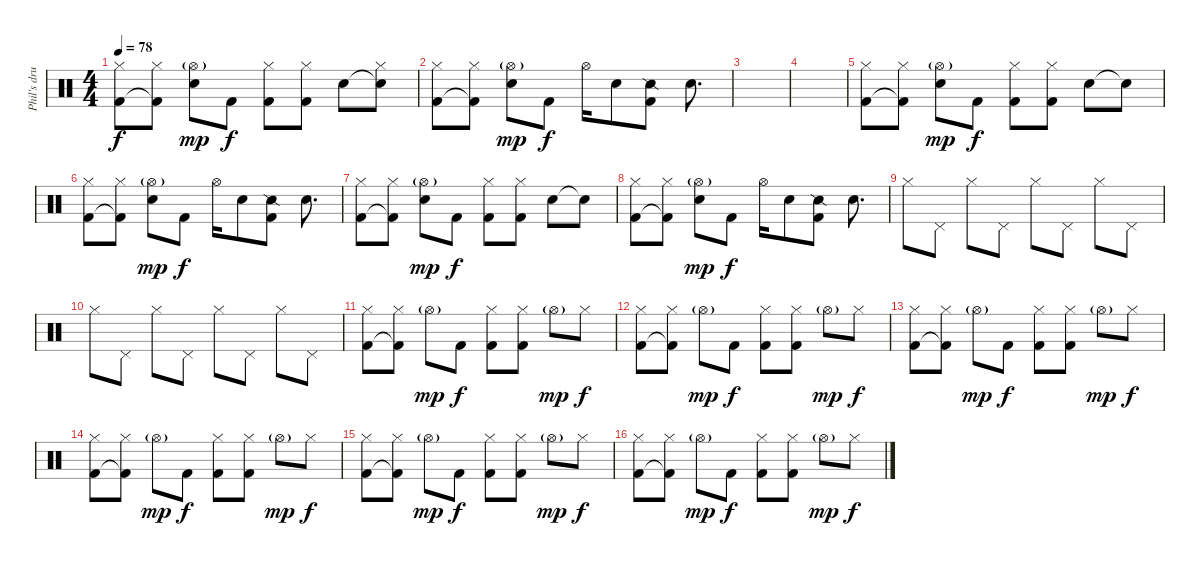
\track ("Phil's drums" "Phil's dru") {instrument percussion}
\staff {score}
\articulation defaults
\ts (4 4)
\tempo 78
\clef neutral
\ks c
("Kick (hit) 2" "Hi-Hat (closed)").8{dy f} ("Kick (hit) 2"{t} "Hi-Hat (closed)").8 ("Snare (hit) 2" "Hi-Hat (open)"{g}).8{dy mp} "Kick (hit) 2".8{dy f} ("Kick (hit) 2" "Hi-Hat (closed)").8 ("Kick (hit) 2" "Hi-Hat (closed)").8 "Snare (hit) 2".8 ("Snare (hit) 2"{t} "Hi-Hat (closed)").8 |
("Kick (hit) 2" "Hi-Hat (closed)").8 ("Kick (hit) 2"{t} "Hi-Hat (closed)").8 ("Snare (hit) 2" "Hi-Hat (open)"{g}).8{dy mp} "Kick (hit) 2".8{dy f} "Hi-Hat (open)".16 "Snare (hit) 2".8 ("Snare (side stick) 2" "Kick (hit) 2").8 "Snare (hit) 2".8{d} |
|
|
("Kick (hit) 2" "Hi-Hat (closed)").8 ("Kick (hit) 2"{t} "Hi-Hat (closed)").8 ("Snare (hit) 2" "Hi-Hat (open)"{g}).8{dy mp} "Kick (hit) 2".8{dy f} ("Kick (hit) 2" "Hi-Hat (closed)").8 ("Kick (hit) 2" "Hi-Hat (closed)").8 "Snare (hit) 2".8 "Snare (hit) 2"{t}.8 |
("Kick (hit) 2" "Hi-Hat (closed)").8 ("Kick (hit) 2"{t} "Hi-Hat (closed)").8 ("Snare (hit) 2" "Hi-Hat (open)"{g}).8{dy mp} "Kick (hit) 2".8{dy f} "Hi-Hat (open)".16 "Snare (hit) 2".8 ("Snare (side stick) 2" "Kick (hit) 2").8 "Snare (hit) 2".8{d} |
("Kick (hit) 2" "Hi-Hat (closed)").8 ("Kick (hit) 2"{t} "Hi-Hat (closed)").8 ("Snare (hit) 2" "Hi-Hat (open)"{g}).8{dy mp} "Kick (hit) 2".8{dy f} ("Kick (hit) 2" "Hi-Hat (closed)").8 ("Kick (hit) 2" "Hi-Hat (closed)").8 "Snare (hit) 2".8 "Snare (hit) 2"{t}.8 |
("Kick (hit) 2" "Hi-Hat (closed)").8 ("Kick (hit) 2"{t} "Hi-Hat (closed)").8 ("Snare (hit) 2" "Hi-Hat (open)"{g}).8{dy mp} "Kick (hit) 2".8{dy f} "Hi-Hat (open)".16 "Snare (hit) 2".8 ("Snare (side stick) 2" "Kick (hit) 2").8 "Snare (hit) 2".8{d} |
"Hi-Hat (closed)".8 "Pedal Hi-Hat (hit)".8 "Hi-Hat (closed)".8 "Pedal Hi-Hat (hit)".8 "Hi-Hat (closed)".8 "Pedal Hi-Hat (hit)".8 "Hi-Hat (closed)".8 "Pedal Hi-Hat (hit)".8 |
"Hi-Hat (closed)".8 "Pedal Hi-Hat (hit)".8 "Hi-Hat (closed)".8 "Pedal Hi-Hat (hit)".8 "Hi-Hat (closed)".8 "Pedal Hi-Hat (hit)".8 "Hi-Hat (closed)".8 "Pedal Hi-Hat (hit)".8 |
("Kick (hit) 2" "Hi-Hat (closed)").8 ("Kick (hit) 2"{t} "Hi-Hat (closed)").8 "Hi-Hat (open)"{g}.8{dy mp} "Kick (hit) 2".8{dy f} ("Kick (hit) 2" "Hi-Hat (closed)").8 ("Kick (hit) 2" "Hi-Hat (closed)").8 "Hi-Hat (open)"{g}.8{dy mp} "Hi-Hat (closed)".8{dy f} |
("Kick (hit) 2" "Hi-Hat (closed)").8 ("Kick (hit) 2"{t} "Hi-Hat (closed)").8 "Hi-Hat (open)"{g}.8{dy mp} "Kick (hit) 2".8{dy f} ("Kick (hit) 2" "Hi-Hat (closed)").8 ("Kick (hit) 2" "Hi-Hat (closed)").8 "Hi-Hat (open)"{g}.8{dy mp} "Hi-Hat (closed)".8{dy f} |
("Kick (hit) 2" "Hi-Hat (closed)").8 ("Kick (hit) 2"{t} "Hi-Hat (closed)").8 "Hi-Hat (open)"{g}.8{dy mp} "Kick (hit) 2".8{dy f} ("Kick (hit) 2" "Hi-Hat (closed)").8 ("Kick (hit) 2" "Hi-Hat (closed)").8 "Hi-Hat (open)"{g}.8{dy mp} "Hi-Hat (closed)".8{dy f} |
("Kick (hit) 2" "Hi-Hat (closed)").8 ("Kick (hit) 2"{t} "Hi-Hat (closed)").8 "Hi-Hat (open)"{g}.8{dy mp} "Kick (hit) 2".8{dy f} ("Kick (hit) 2" "Hi-Hat (closed)").8 ("Kick (hit) 2" "Hi-Hat (closed)").8 "Hi-Hat (open)"{g}.8{dy mp} "Hi-Hat (closed)".8{dy f} |
("Kick (hit) 2" "Hi-Hat (closed)").8 ("Kick (hit) 2"{t} "Hi-Hat (closed)").8 "Hi-Hat (open)"{g}.8{dy mp} "Kick (hit) 2".8{dy f} ("Kick (hit) 2" "Hi-Hat (closed)").8 ("Kick (hit) 2" "Hi-Hat (closed)").8 "Hi-Hat (open)"{g}.8{dy mp} "Hi-Hat (closed)".8{dy f} |
("Kick (hit) 2" "Hi-Hat (closed)").8 ("Kick (hit) 2"{t} "Hi-Hat (closed)").8 "Hi-Hat (open)"{g}.8{dy mp} "Kick (hit) 2".8{dy f} ("Kick (hit) 2" "Hi-Hat (closed)").8 ("Kick (hit) 2" "Hi-Hat (closed)").8 "Hi-Hat (open)"{g}.8{dy mp} "Hi-Hat (closed)".8{dy f}
